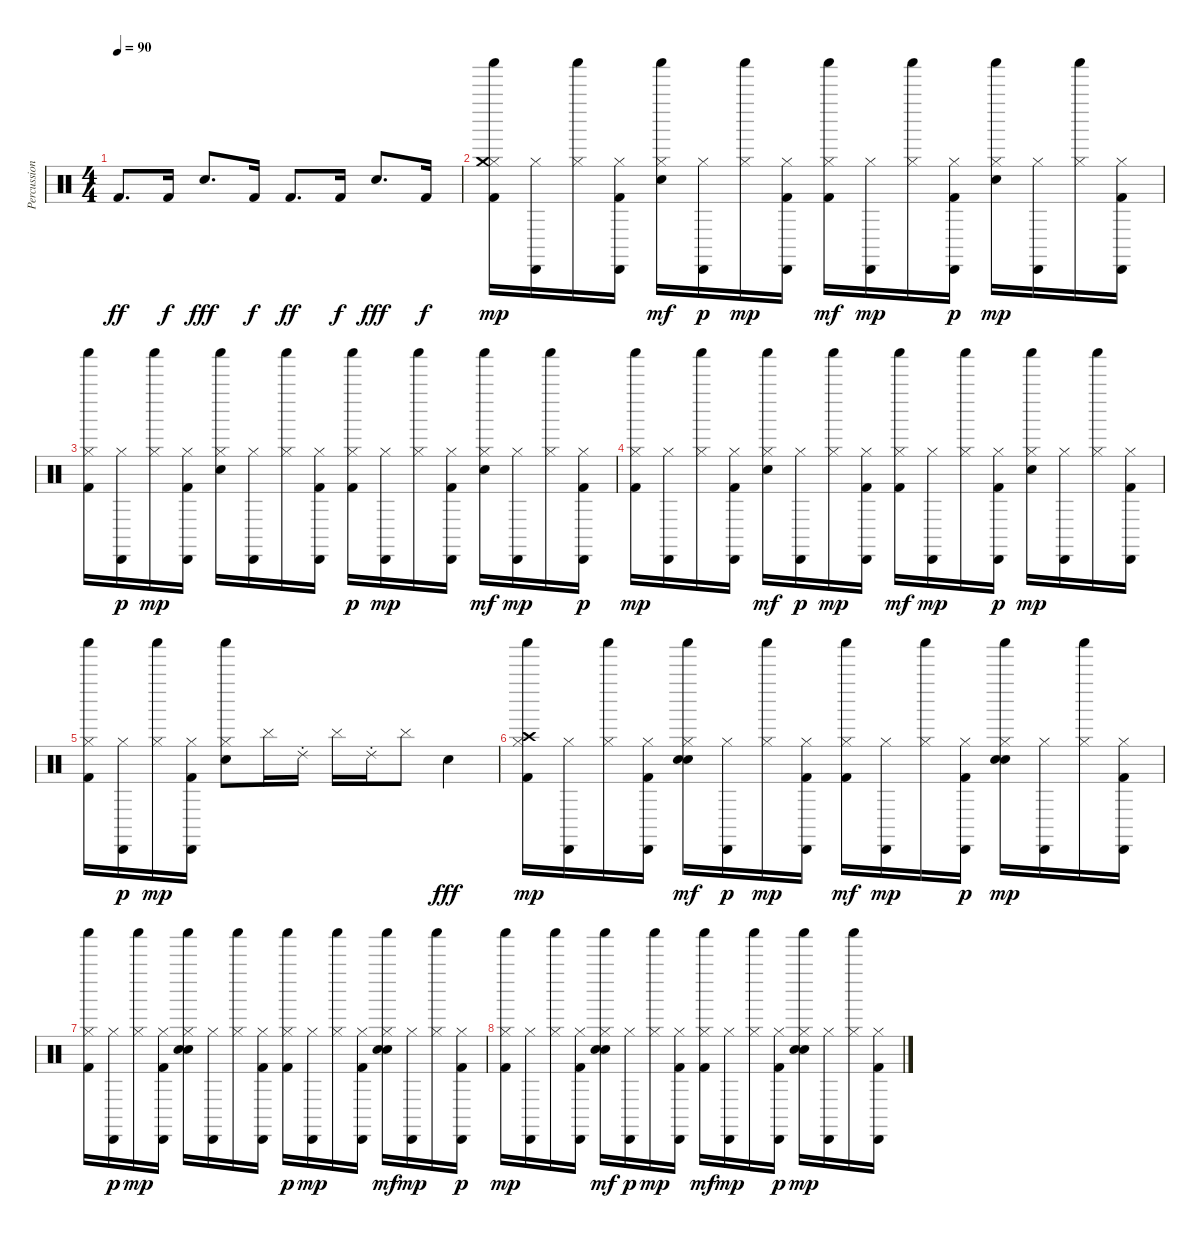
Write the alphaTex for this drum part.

\track ("Percussions" "Percussion") {instrument percussion}
\staff {score}
\articulation defaults
\ts (4 4)
\tempo 90
\clef neutral
\ks c "Kick (hit) 2".8{d dy ff} "Kick (hit) 2".16{dy f} "Electric Snare (hit)".8{d dy fff} "Kick (hit) 2".16{dy f} "Kick (hit) 2".8{d dy ff} "Kick (hit) 2".16{dy f} "Electric Snare (hit)".8{d dy fff} "Kick (hit) 2".16{dy f}
|
("Kick (hit) 2" "Hi-Hat (closed)" "Crash medium (hit)" "Shaker (hit)").16{dy mp} ("Hi-Hat (closed)" "Cabasa (hit)").16 ("Hi-Hat (closed)" "Shaker (hit)").16 ("Kick (hit) 2" "Hi-Hat (closed)" "Cabasa (hit)").16 ("Electric Snare (hit)" "Hi-Hat (closed)" "Shaker (hit)").16{dy mf} ("Hi-Hat (closed)" "Cabasa (hit)").16{dy p} ("Hi-Hat (closed)" "Shaker (hit)").16{dy mp} ("Kick (hit) 2" "Hi-Hat (closed)" "Cabasa (hit)").16 ("Kick (hit) 2" "Hi-Hat (closed)" "Shaker (hit)").16{dy mf} ("Hi-Hat (closed)" "Cabasa (hit)").16{dy mp} ("Hi-Hat (closed)" "Shaker (hit)").16 ("Kick (hit) 2" "Hi-Hat (closed)" "Cabasa (hit)").16{dy p} ("Electric Snare (hit)" "Hi-Hat (closed)" "Shaker (hit)").16{dy mp} ("Hi-Hat (closed)" "Cabasa (hit)").16 ("Hi-Hat (closed)" "Shaker (hit)").16 ("Kick (hit) 2" "Hi-Hat (closed)" "Cabasa (hit)").16 |
("Kick (hit) 2" "Hi-Hat (closed)" "Shaker (hit)").16 ("Hi-Hat (closed)" "Cabasa (hit)").16{dy p} ("Hi-Hat (closed)" "Shaker (hit)").16{dy mp} ("Kick (hit) 2" "Hi-Hat (closed)" "Cabasa (hit)").16 ("Electric Snare (hit)" "Hi-Hat (closed)" "Shaker (hit)").16 ("Hi-Hat (closed)" "Cabasa (hit)").16 ("Hi-Hat (closed)" "Shaker (hit)").16 ("Kick (hit) 2" "Hi-Hat (closed)" "Cabasa (hit)").16 ("Kick (hit) 2" "Hi-Hat (closed)" "Shaker (hit)").16{dy p} ("Hi-Hat (closed)" "Cabasa (hit)").16{dy mp} ("Hi-Hat (closed)" "Shaker (hit)").16 ("Kick (hit) 2" "Hi-Hat (closed)" "Cabasa (hit)").16 ("Electric Snare (hit)" "Hi-Hat (closed)" "Shaker (hit)").16{dy mf} ("Hi-Hat (closed)" "Cabasa (hit)").16{dy mp} ("Hi-Hat (closed)" "Shaker (hit)").16 ("Kick (hit) 2" "Hi-Hat (closed)" "Cabasa (hit)").16{dy p} |
("Kick (hit) 2" "Hi-Hat (closed)" "Shaker (hit)").16{dy mp} ("Hi-Hat (closed)" "Cabasa (hit)").16 ("Hi-Hat (closed)" "Shaker (hit)").16 ("Kick (hit) 2" "Hi-Hat (closed)" "Cabasa (hit)").16 ("Electric Snare (hit)" "Hi-Hat (closed)" "Shaker (hit)").16{dy mf} ("Hi-Hat (closed)" "Cabasa (hit)").16{dy p} ("Hi-Hat (closed)" "Shaker (hit)").16{dy mp} ("Kick (hit) 2" "Hi-Hat (closed)" "Cabasa (hit)").16 ("Kick (hit) 2" "Hi-Hat (closed)" "Shaker (hit)").16{dy mf} ("Hi-Hat (closed)" "Cabasa (hit)").16{dy mp} ("Hi-Hat (closed)" "Shaker (hit)").16 ("Kick (hit) 2" "Hi-Hat (closed)" "Cabasa (hit)").16{dy p} ("Electric Snare (hit)" "Hi-Hat (closed)" "Shaker (hit)").16{dy mp} ("Hi-Hat (closed)" "Cabasa (hit)").16 ("Hi-Hat (closed)" "Shaker (hit)").16 ("Kick (hit) 2" "Hi-Hat (closed)" "Cabasa (hit)").16 |
("Kick (hit) 2" "Hi-Hat (closed)" "Shaker (hit)").16 ("Hi-Hat (closed)" "Cabasa (hit)").16{dy p} ("Hi-Hat (closed)" "Shaker (hit)").16{dy mp} ("Kick (hit) 2" "Hi-Hat (closed)" "Cabasa (hit)").16 ("Electric Snare (hit)" "Hi-Hat (closed)" "Shaker (hit)").8 "Cymbal (hit)".16 "Ride (choke) 2".16 "Cymbal (hit)".16 "Ride (choke) 2".16 "Cymbal (hit)".8 "Electric Snare (hit)".4{dy fff} |
("Kick (hit) 2" "Hi-Hat (closed)" "Crash high (hit)" "Shaker (hit)").16{dy mp} ("Hi-Hat (closed)" "Cabasa (hit)").16 ("Hi-Hat (closed)" "Shaker (hit)").16 ("Kick (hit) 2" "Hi-Hat (closed)" "Cabasa (hit)").16 ("Hand Clap (hit)" "Electric Snare (hit)" "Hi-Hat (closed)" "Shaker (hit)").16{dy mf} ("Hi-Hat (closed)" "Cabasa (hit)").16{dy p} ("Hi-Hat (closed)" "Shaker (hit)").16{dy mp} ("Kick (hit) 2" "Hi-Hat (closed)" "Cabasa (hit)").16 ("Kick (hit) 2" "Hi-Hat (closed)" "Shaker (hit)").16{dy mf} ("Hi-Hat (closed)" "Cabasa (hit)").16{dy mp} ("Hi-Hat (closed)" "Shaker (hit)").16 ("Kick (hit) 2" "Hi-Hat (closed)" "Cabasa (hit)").16{dy p} ("Hand Clap (hit)" "Electric Snare (hit)" "Hi-Hat (closed)" "Shaker (hit)").16{dy mp} ("Hi-Hat (closed)" "Cabasa (hit)").16 ("Hi-Hat (closed)" "Shaker (hit)").16 ("Kick (hit) 2" "Hi-Hat (closed)" "Cabasa (hit)").16 |
("Kick (hit) 2" "Hi-Hat (closed)" "Shaker (hit)").16 ("Hi-Hat (closed)" "Cabasa (hit)").16{dy p} ("Hi-Hat (closed)" "Shaker (hit)").16{dy mp} ("Kick (hit) 2" "Hi-Hat (closed)" "Cabasa (hit)").16 ("Hand Clap (hit)" "Electric Snare (hit)" "Hi-Hat (closed)" "Shaker (hit)").16 ("Hi-Hat (closed)" "Cabasa (hit)").16 ("Hi-Hat (closed)" "Shaker (hit)").16 ("Kick (hit) 2" "Hi-Hat (closed)" "Cabasa (hit)").16 ("Kick (hit) 2" "Hi-Hat (closed)" "Shaker (hit)").16{dy p} ("Hi-Hat (closed)" "Cabasa (hit)").16{dy mp} ("Hi-Hat (closed)" "Shaker (hit)").16 ("Kick (hit) 2" "Hi-Hat (closed)" "Cabasa (hit)").16 ("Hand Clap (hit)" "Electric Snare (hit)" "Hi-Hat (closed)" "Shaker (hit)").16{dy mf} ("Hi-Hat (closed)" "Cabasa (hit)").16{dy mp} ("Hi-Hat (closed)" "Shaker (hit)").16 ("Kick (hit) 2" "Hi-Hat (closed)" "Cabasa (hit)").16{dy p} |
("Kick (hit) 2" "Hi-Hat (closed)" "Shaker (hit)").16{dy mp} ("Hi-Hat (closed)" "Cabasa (hit)").16 ("Hi-Hat (closed)" "Shaker (hit)").16 ("Kick (hit) 2" "Hi-Hat (closed)" "Cabasa (hit)").16 ("Hand Clap (hit)" "Electric Snare (hit)" "Hi-Hat (closed)" "Shaker (hit)").16{dy mf} ("Hi-Hat (closed)" "Cabasa (hit)").16{dy p} ("Hi-Hat (closed)" "Shaker (hit)").16{dy mp} ("Kick (hit) 2" "Hi-Hat (closed)" "Cabasa (hit)").16 ("Kick (hit) 2" "Hi-Hat (closed)" "Shaker (hit)").16{dy mf} ("Hi-Hat (closed)" "Cabasa (hit)").16{dy mp} ("Hi-Hat (closed)" "Shaker (hit)").16 ("Kick (hit) 2" "Hi-Hat (closed)" "Cabasa (hit)").16{dy p} ("Hand Clap (hit)" "Electric Snare (hit)" "Hi-Hat (closed)" "Shaker (hit)").16{dy mp} ("Hi-Hat (closed)" "Cabasa (hit)").16 ("Hi-Hat (closed)" "Shaker (hit)").16 ("Kick (hit) 2" "Hi-Hat (closed)" "Cabasa (hit)").16
